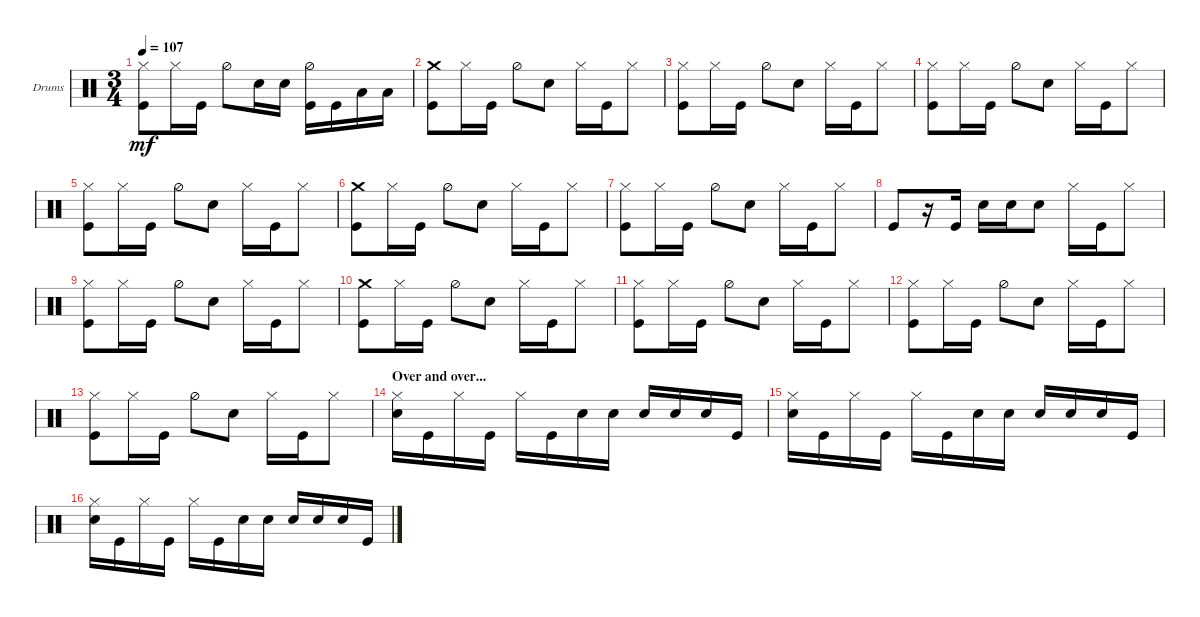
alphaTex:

\defaultSystemsLayout 4
\bracketExtendMode groupsimilarinstruments
\firstSystemTrackNameOrientation horizontal
\otherSystemsTrackNameOrientation horizontal
\track ("Drums" "Drums") {instrument percussion}
\staff {score}
\articulation defaults
\ts (3 4)
\tempo 107
\clef neutral
\ks c
("Hi-Hat (closed)" "Kick (hit)").8{dy mf} "Hi-Hat (closed)".16 "Kick (hit)".16 "Hi-Hat (half)".8 "Snare (hit) 2".16 "Snare (hit) 2".16 ("Kick (hit)" "Hi-Hat (half)").16 "Kick (hit)".16 "Low Tom (hit)".16 "Low Tom (hit)".16 |
("Crash medium (hit)" "Kick (hit)").8 "Hi-Hat (closed)".16 "Kick (hit)".16 "Hi-Hat (half)".8 "Snare (hit) 2".8 "Hi-Hat (closed)".16 "Kick (hit)".16 "Hi-Hat (closed)".8 |
("Hi-Hat (closed)" "Kick (hit)").8 "Hi-Hat (closed)".16 "Kick (hit)".16 "Hi-Hat (half)".8 "Snare (hit) 2".8 "Hi-Hat (closed)".16 "Kick (hit)".16 "Hi-Hat (closed)".8 |
("Hi-Hat (closed)" "Kick (hit)").8 "Hi-Hat (closed)".16 "Kick (hit)".16 "Hi-Hat (half)".8 "Snare (hit) 2".8 "Hi-Hat (closed)".16 "Kick (hit)".16 "Hi-Hat (closed)".8 |
("Hi-Hat (closed)" "Kick (hit)").8 "Hi-Hat (closed)".16 "Kick (hit)".16 "Hi-Hat (half)".8 "Snare (hit) 2".8 "Hi-Hat (closed)".16 "Kick (hit)".16 "Hi-Hat (closed)".8 |
("Crash medium (hit)" "Kick (hit)").8 "Hi-Hat (closed)".16 "Kick (hit)".16 "Hi-Hat (half)".8 "Snare (hit) 2".8 "Hi-Hat (closed)".16 "Kick (hit)".16 "Hi-Hat (closed)".8 |
("Hi-Hat (closed)" "Kick (hit)").8 "Hi-Hat (closed)".16 "Kick (hit)".16 "Hi-Hat (half)".8 "Snare (hit) 2".8 "Hi-Hat (closed)".16 "Kick (hit)".16 "Hi-Hat (closed)".8 |
"Kick (hit)".8 r.16 "Kick (hit)".16 "Snare (hit) 2".16 "Snare (hit) 2".16 "Snare (hit) 2".8 "Hi-Hat (closed)".16 "Kick (hit)".16 "Hi-Hat (closed)".8 |
("Hi-Hat (closed)" "Kick (hit)").8 "Hi-Hat (closed)".16 "Kick (hit)".16 "Hi-Hat (half)".8 "Snare (hit) 2".8 "Hi-Hat (closed)".16 "Kick (hit)".16 "Hi-Hat (closed)".8 |
("Crash medium (hit)" "Kick (hit)").8 "Hi-Hat (closed)".16 "Kick (hit)".16 "Hi-Hat (half)".8 "Snare (hit) 2".8 "Hi-Hat (closed)".16 "Kick (hit)".16 "Hi-Hat (closed)".8 |
("Hi-Hat (closed)" "Kick (hit)").8 "Hi-Hat (closed)".16 "Kick (hit)".16 "Hi-Hat (half)".8 "Snare (hit) 2".8 "Hi-Hat (closed)".16 "Kick (hit)".16 "Hi-Hat (closed)".8 |
("Hi-Hat (closed)" "Kick (hit)").8 "Hi-Hat (closed)".16 "Kick (hit)".16 "Hi-Hat (half)".8 "Snare (hit) 2".8 "Hi-Hat (closed)".16 "Kick (hit)".16 "Hi-Hat (closed)".8 |
("Hi-Hat (closed)" "Kick (hit)").8 "Hi-Hat (closed)".16 "Kick (hit)".16 "Hi-Hat (half)".8 "Snare (hit) 2".8 "Hi-Hat (closed)".16 "Kick (hit)".16 "Hi-Hat (closed)".8 |
\section ("" "Over and over...")
("Snare (hit) 2" "Hi-Hat (closed)").16 "Kick (hit)".16 "Hi-Hat (closed)".16 "Kick (hit)".16 "Hi-Hat (closed)".16 "Kick (hit)".16 "Snare (hit) 2".16 "Snare (hit) 2".16 "Snare (hit) 2".16 "Snare (hit) 2".16 "Snare (hit) 2".16 "Kick (hit)".16 |
("Snare (hit) 2" "Hi-Hat (closed)").16 "Kick (hit)".16 "Hi-Hat (closed)".16 "Kick (hit)".16 "Hi-Hat (closed)".16 "Kick (hit)".16 "Snare (hit) 2".16 "Snare (hit) 2".16 "Snare (hit) 2".16 "Snare (hit) 2".16 "Snare (hit) 2".16 "Kick (hit)".16 |
("Snare (hit) 2" "Hi-Hat (closed)").16 "Kick (hit)".16 "Hi-Hat (closed)".16 "Kick (hit)".16 "Hi-Hat (closed)".16 "Kick (hit)".16 "Snare (hit) 2".16 "Snare (hit) 2".16 "Snare (hit) 2".16 "Snare (hit) 2".16 "Snare (hit) 2".16 "Kick (hit)".16
